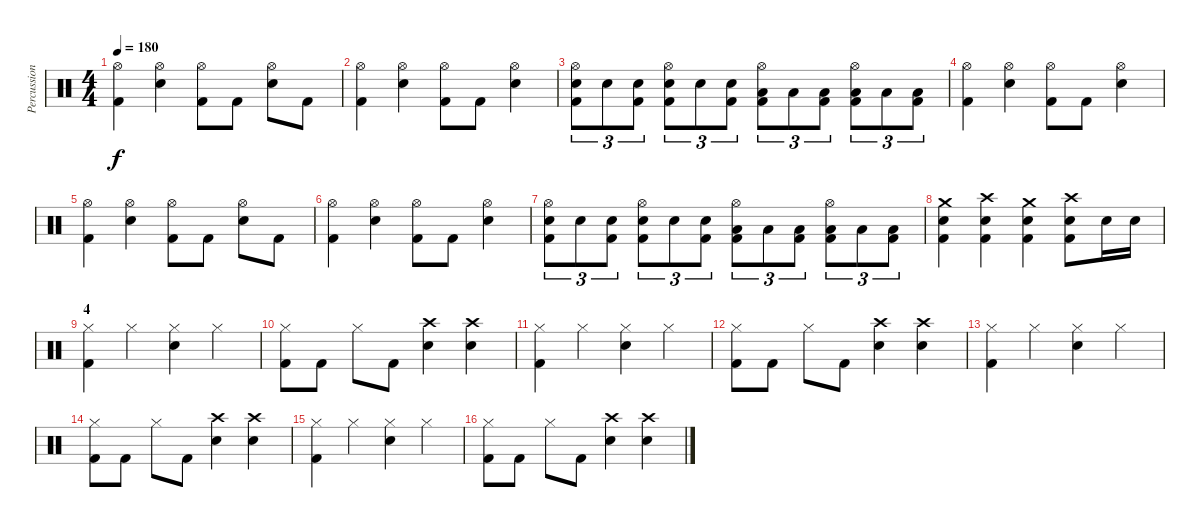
\track ("Percussions" "Percussion") {instrument percussion}
\staff {score}
\articulation defaults
\ts (4 4)
\tempo 180
\clef neutral
\ks c
("Hi-Hat (open)" "Kick (hit) 2").4{dy f} ("Hi-Hat (open)" "Snare (hit) 2").4 ("Hi-Hat (open)" "Kick (hit) 2").8 "Kick (hit) 2".8 ("Hi-Hat (open)" "Snare (hit) 2").8 "Kick (hit) 2".8 |
("Hi-Hat (open)" "Kick (hit) 2").4 ("Hi-Hat (open)" "Snare (hit) 2").4 ("Hi-Hat (open)" "Kick (hit) 2").8 "Kick (hit) 2".8 ("Hi-Hat (open)" "Snare (hit) 2").4 |
("Hi-Hat (open)" "Snare (hit) 2" "Kick (hit) 2").8{tu (3 2)} "Snare (hit) 2".8{tu (3 2)} ("Snare (hit) 2" "Kick (hit) 2").8{tu (3 2)} ("Hi-Hat (open)" "Snare (hit) 2" "Kick (hit) 2").8{tu (3 2)} "Snare (hit) 2".8{tu (3 2)} ("Snare (hit) 2" "Kick (hit) 2").8{tu (3 2)} ("Hi-Hat (open)" "Low Tom (hit)" "Kick (hit) 2").8{tu (3 2)} "Low Tom (hit)".8{tu (3 2)} ("Low Tom (hit)" "Kick (hit) 2").8{tu (3 2)} ("Hi-Hat (open)" "Low Floor Tom (hit)" "Kick (hit) 2").8{tu (3 2)} "Low Floor Tom (hit)".8{tu (3 2)} ("Low Floor Tom (hit)" "Kick (hit) 2").8{tu (3 2)} |
("Hi-Hat (open)" "Kick (hit) 2").4 ("Hi-Hat (open)" "Snare (hit) 2").4 ("Hi-Hat (open)" "Kick (hit) 2").8 "Kick (hit) 2".8 ("Hi-Hat (open)" "Snare (hit) 2").4 |
("Hi-Hat (open)" "Kick (hit) 2").4 ("Hi-Hat (open)" "Snare (hit) 2").4 ("Hi-Hat (open)" "Kick (hit) 2").8 "Kick (hit) 2".8 ("Hi-Hat (open)" "Snare (hit) 2").8 "Kick (hit) 2".8 |
("Hi-Hat (open)" "Kick (hit) 2").4 ("Hi-Hat (open)" "Snare (hit) 2").4 ("Hi-Hat (open)" "Kick (hit) 2").8 "Kick (hit) 2".8 ("Hi-Hat (open)" "Snare (hit) 2").4 |
("Hi-Hat (open)" "Snare (hit) 2" "Kick (hit) 2").8{tu (3 2)} "Snare (hit) 2".8{tu (3 2)} ("Snare (hit) 2" "Kick (hit) 2").8{tu (3 2)} ("Hi-Hat (open)" "Snare (hit) 2" "Kick (hit) 2").8{tu (3 2)} "Snare (hit) 2".8{tu (3 2)} ("Snare (hit) 2" "Kick (hit) 2").8{tu (3 2)} ("Hi-Hat (open)" "Low Tom (hit)" "Kick (hit) 2").8{tu (3 2)} "Low Tom (hit)".8{tu (3 2)} ("Low Tom (hit)" "Kick (hit) 2").8{tu (3 2)} ("Hi-Hat (open)" "Low Floor Tom (hit)" "Kick (hit) 2").8{tu (3 2)} "Low Floor Tom (hit)".8{tu (3 2)} ("Low Floor Tom (hit)" "Kick (hit) 2").8{tu (3 2)} |
("Crash medium (hit)" "Snare (hit) 2" "Kick (hit) 2").4 ("Crash high (hit)" "Snare (hit) 2" "Kick (hit) 2").4 ("Crash medium (hit)" "Snare (hit) 2" "Kick (hit) 2").4 ("Crash high (hit)" "Snare (hit) 2" "Kick (hit) 2").8 "Snare (hit) 2".16 "Snare (hit) 2".16 |
\section ("" "4")
("Hi-Hat (closed)" "Kick (hit) 2").4 "Hi-Hat (closed)".4 ("Hi-Hat (closed)" "Snare (hit) 2").4 "Hi-Hat (closed)".4 |
("Hi-Hat (closed)" "Kick (hit) 2").8 "Kick (hit) 2".8 "Hi-Hat (closed)".8 "Kick (hit) 2".8 ("Crash high (hit)" "Snare (hit) 2").4 ("Crash high (hit)" "Snare (hit) 2").4 |
("Hi-Hat (closed)" "Kick (hit) 2").4 "Hi-Hat (closed)".4 ("Hi-Hat (closed)" "Snare (hit) 2").4 "Hi-Hat (closed)".4 |
("Hi-Hat (closed)" "Kick (hit) 2").8 "Kick (hit) 2".8 "Hi-Hat (closed)".8 "Kick (hit) 2".8 ("Crash high (hit)" "Snare (hit) 2").4 ("Crash high (hit)" "Snare (hit) 2").4 |
("Hi-Hat (closed)" "Kick (hit) 2").4 "Hi-Hat (closed)".4 ("Hi-Hat (closed)" "Snare (hit) 2").4 "Hi-Hat (closed)".4 |
("Hi-Hat (closed)" "Kick (hit) 2").8 "Kick (hit) 2".8 "Hi-Hat (closed)".8 "Kick (hit) 2".8 ("Crash high (hit)" "Snare (hit) 2").4 ("Crash high (hit)" "Snare (hit) 2").4 |
("Hi-Hat (closed)" "Kick (hit) 2").4 "Hi-Hat (closed)".4 ("Hi-Hat (closed)" "Snare (hit) 2").4 "Hi-Hat (closed)".4 |
("Hi-Hat (closed)" "Kick (hit) 2").8 "Kick (hit) 2".8 "Hi-Hat (closed)".8 "Kick (hit) 2".8 ("Crash high (hit)" "Snare (hit) 2").4 ("Crash high (hit)" "Snare (hit) 2").4
